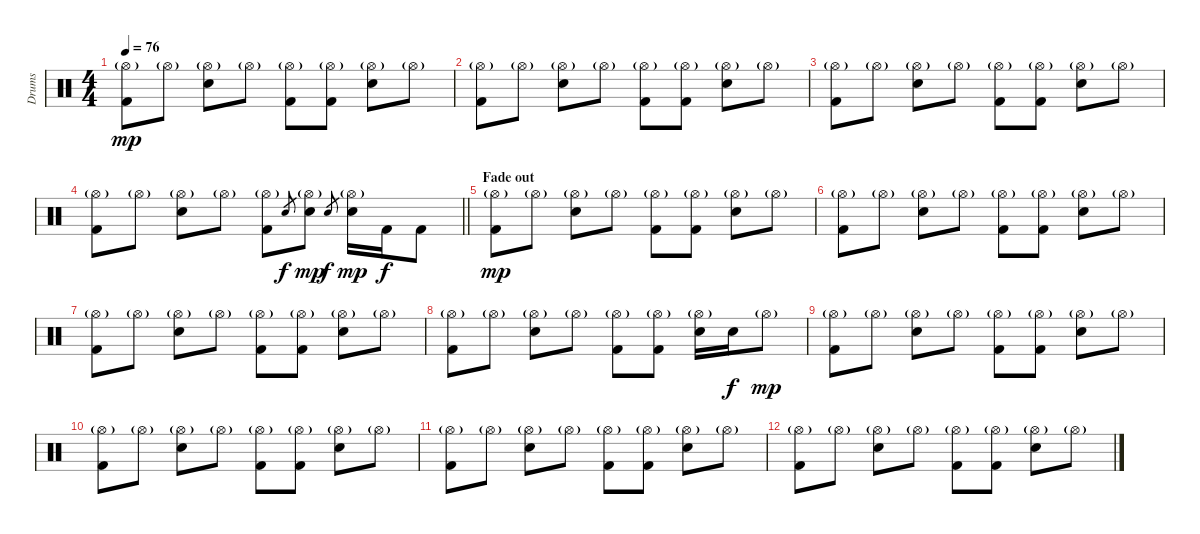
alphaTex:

\track ("Drums" "Drums") {instrument percussion}
\staff {score}
\articulation defaults
\ts (4 4)
\tempo 76
\clef neutral
\ks c
("Kick (hit) 2" "Hi-Hat (open)"{g}).8{dy mp} "Hi-Hat (open)"{g}.8 ("Electric Snare (hit)" "Hi-Hat (open)"{g}).8 "Hi-Hat (open)"{g}.8 ("Kick (hit) 2" "Hi-Hat (open)"{g}).8 ("Kick (hit) 2" "Hi-Hat (open)"{g}).8 ("Electric Snare (hit)" "Hi-Hat (open)"{g}).8 "Hi-Hat (open)"{g}.8 |
("Kick (hit) 2" "Hi-Hat (open)"{g}).8 "Hi-Hat (open)"{g}.8 ("Electric Snare (hit)" "Hi-Hat (open)"{g}).8 "Hi-Hat (open)"{g}.8 ("Kick (hit) 2" "Hi-Hat (open)"{g}).8 ("Kick (hit) 2" "Hi-Hat (open)"{g}).8 ("Electric Snare (hit)" "Hi-Hat (open)"{g}).8 "Hi-Hat (open)"{g}.8 |
("Kick (hit) 2" "Hi-Hat (open)"{g}).8 "Hi-Hat (open)"{g}.8 ("Electric Snare (hit)" "Hi-Hat (open)"{g}).8 "Hi-Hat (open)"{g}.8 ("Kick (hit) 2" "Hi-Hat (open)"{g}).8 ("Kick (hit) 2" "Hi-Hat (open)"{g}).8 ("Electric Snare (hit)" "Hi-Hat (open)"{g}).8 "Hi-Hat (open)"{g}.8 |
\barLineRight lightlight
("Kick (hit) 2" "Hi-Hat (open)"{g}).8 "Hi-Hat (open)"{g}.8 ("Electric Snare (hit)" "Hi-Hat (open)"{g}).8 "Hi-Hat (open)"{g}.8 ("Kick (hit) 2" "Hi-Hat (open)"{g}).8 "Electric Snare (hit)".8{gr dy f} ("Electric Snare (hit)" "Hi-Hat (open)"{g}).8{dy mp} "Electric Snare (hit)".8{gr dy f} ("Electric Snare (hit)" "Hi-Hat (open)"{g}).16{dy mp} "Kick (hit) 2".16{dy f} "Kick (hit) 2".8 |
\section ("" "Fade out")
("Kick (hit) 2" "Hi-Hat (open)"{g}).8{dy mp} "Hi-Hat (open)"{g}.8 ("Electric Snare (hit)" "Hi-Hat (open)"{g}).8 "Hi-Hat (open)"{g}.8 ("Kick (hit) 2" "Hi-Hat (open)"{g}).8 ("Kick (hit) 2" "Hi-Hat (open)"{g}).8 ("Electric Snare (hit)" "Hi-Hat (open)"{g}).8 "Hi-Hat (open)"{g}.8 |
("Kick (hit) 2" "Hi-Hat (open)"{g}).8 "Hi-Hat (open)"{g}.8 ("Electric Snare (hit)" "Hi-Hat (open)"{g}).8 "Hi-Hat (open)"{g}.8 ("Kick (hit) 2" "Hi-Hat (open)"{g}).8 ("Kick (hit) 2" "Hi-Hat (open)"{g}).8 ("Electric Snare (hit)" "Hi-Hat (open)"{g}).8 "Hi-Hat (open)"{g}.8 |
("Kick (hit) 2" "Hi-Hat (open)"{g}).8 "Hi-Hat (open)"{g}.8 ("Electric Snare (hit)" "Hi-Hat (open)"{g}).8 "Hi-Hat (open)"{g}.8 ("Kick (hit) 2" "Hi-Hat (open)"{g}).8 ("Kick (hit) 2" "Hi-Hat (open)"{g}).8 ("Electric Snare (hit)" "Hi-Hat (open)"{g}).8 "Hi-Hat (open)"{g}.8 |
("Kick (hit) 2" "Hi-Hat (open)"{g}).8 "Hi-Hat (open)"{g}.8 ("Electric Snare (hit)" "Hi-Hat (open)"{g}).8 "Hi-Hat (open)"{g}.8 ("Kick (hit) 2" "Hi-Hat (open)"{g}).8 ("Kick (hit) 2" "Hi-Hat (open)"{g}).8 ("Electric Snare (hit)" "Hi-Hat (open)"{g}).16 "Electric Snare (hit)".16{dy f} "Hi-Hat (open)"{g}.8{dy mp} |
("Kick (hit) 2" "Hi-Hat (open)"{g}).8 "Hi-Hat (open)"{g}.8 ("Electric Snare (hit)" "Hi-Hat (open)"{g}).8 "Hi-Hat (open)"{g}.8 ("Kick (hit) 2" "Hi-Hat (open)"{g}).8 ("Kick (hit) 2" "Hi-Hat (open)"{g}).8 ("Electric Snare (hit)" "Hi-Hat (open)"{g}).8 "Hi-Hat (open)"{g}.8 |
("Kick (hit) 2" "Hi-Hat (open)"{g}).8 "Hi-Hat (open)"{g}.8 ("Electric Snare (hit)" "Hi-Hat (open)"{g}).8 "Hi-Hat (open)"{g}.8 ("Kick (hit) 2" "Hi-Hat (open)"{g}).8 ("Kick (hit) 2" "Hi-Hat (open)"{g}).8 ("Electric Snare (hit)" "Hi-Hat (open)"{g}).8 "Hi-Hat (open)"{g}.8 |
("Kick (hit) 2" "Hi-Hat (open)"{g}).8 "Hi-Hat (open)"{g}.8 ("Electric Snare (hit)" "Hi-Hat (open)"{g}).8 "Hi-Hat (open)"{g}.8 ("Kick (hit) 2" "Hi-Hat (open)"{g}).8 ("Kick (hit) 2" "Hi-Hat (open)"{g}).8 ("Electric Snare (hit)" "Hi-Hat (open)"{g}).8 "Hi-Hat (open)"{g}.8 |
("Kick (hit) 2" "Hi-Hat (open)"{g}).8 "Hi-Hat (open)"{g}.8 ("Electric Snare (hit)" "Hi-Hat (open)"{g}).8 "Hi-Hat (open)"{g}.8 ("Kick (hit) 2" "Hi-Hat (open)"{g}).8 ("Kick (hit) 2" "Hi-Hat (open)"{g}).8 ("Electric Snare (hit)" "Hi-Hat (open)"{g}).8 "Hi-Hat (open)"{g}.8
